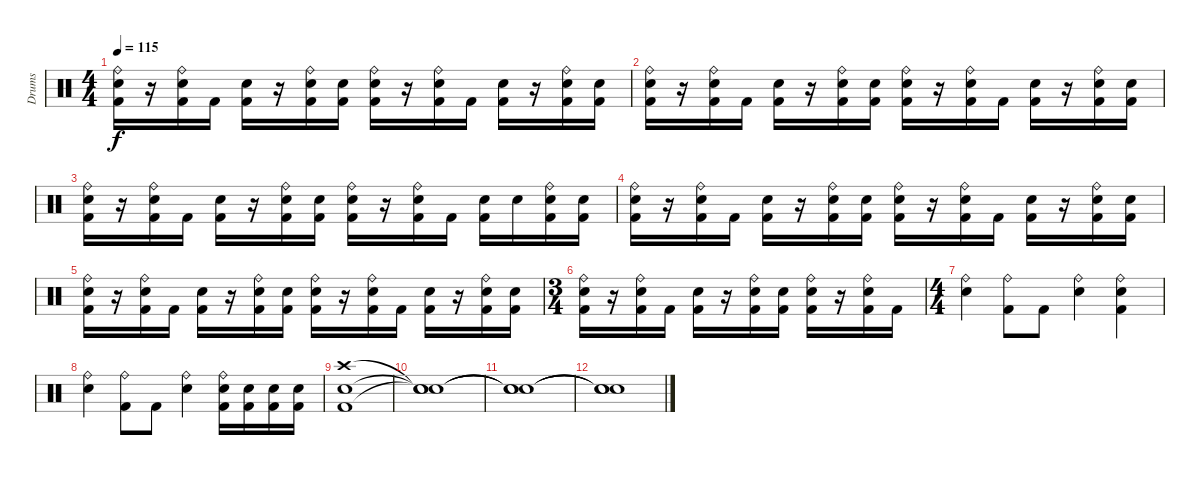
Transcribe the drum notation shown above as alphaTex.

\track ("Drums" "Drums") {instrument percussion}
\staff {score}
\articulation defaults
\ts (4 4)
\tempo 115
\clef neutral
\ks c
("Ride (bell)" "Snare (hit) 2" "Kick (hit) 2").16{dy f} r.16 ("Ride (bell)" "Snare (hit) 2" "Kick (hit) 2").16 "Kick (hit) 2".16 ("Electric Snare (hit)" "Kick (hit) 2").16 r.16 ("Ride (bell)" "Snare (hit) 2" "Kick (hit) 2").16 ("Snare (hit) 2" "Kick (hit) 2").16 ("Ride (bell)" "Snare (hit) 2" "Kick (hit) 2").16 r.16 ("Ride (bell)" "Snare (hit) 2" "Kick (hit) 2").16 "Kick (hit) 2".16 ("Electric Snare (hit)" "Kick (hit) 2").16 r.16 ("Ride (bell)" "Snare (hit) 2" "Kick (hit) 2").16 ("Snare (hit) 2" "Kick (hit) 2").16 |
("Ride (bell)" "Snare (hit) 2" "Kick (hit) 2").16 r.16 ("Ride (bell)" "Snare (hit) 2" "Kick (hit) 2").16 "Kick (hit) 2".16 ("Electric Snare (hit)" "Kick (hit) 2").16 r.16 ("Ride (bell)" "Snare (hit) 2" "Kick (hit) 2").16 ("Snare (hit) 2" "Kick (hit) 2").16 ("Ride (bell)" "Snare (hit) 2" "Kick (hit) 2").16 r.16 ("Ride (bell)" "Snare (hit) 2" "Kick (hit) 2").16 "Kick (hit) 2".16 ("Electric Snare (hit)" "Kick (hit) 2").16 r.16 ("Ride (bell)" "Snare (hit) 2" "Kick (hit) 2").16 ("Snare (hit) 2" "Kick (hit) 2").16 |
("Ride (bell)" "Snare (hit) 2" "Kick (hit) 2").16 r.16 ("Ride (bell)" "Snare (hit) 2" "Kick (hit) 2").16 "Kick (hit) 2".16 ("Electric Snare (hit)" "Kick (hit) 2").16 r.16 ("Ride (bell)" "Snare (hit) 2" "Kick (hit) 2").16 ("Snare (hit) 2" "Kick (hit) 2").16 ("Ride (bell)" "Snare (hit) 2" "Kick (hit) 2").16 r.16 ("Ride (bell)" "Snare (hit) 2" "Kick (hit) 2").16 "Kick (hit) 2".16 ("Electric Snare (hit)" "Kick (hit) 2").16 "Electric Snare (hit)".16 ("Ride (bell)" "Electric Snare (hit)" "Kick (hit) 2").16 ("Electric Snare (hit)" "Kick (hit) 2").16 |
("Ride (bell)" "Snare (hit) 2" "Kick (hit) 2").16 r.16 ("Ride (bell)" "Snare (hit) 2" "Kick (hit) 2").16 "Kick (hit) 2".16 ("Electric Snare (hit)" "Kick (hit) 2").16 r.16 ("Ride (bell)" "Snare (hit) 2" "Kick (hit) 2").16 ("Snare (hit) 2" "Kick (hit) 2").16 ("Ride (bell)" "Snare (hit) 2" "Kick (hit) 2").16 r.16 ("Ride (bell)" "Snare (hit) 2" "Kick (hit) 2").16 "Kick (hit) 2".16 ("Electric Snare (hit)" "Kick (hit) 2").16 r.16 ("Ride (bell)" "Snare (hit) 2" "Kick (hit) 2").16 ("Snare (hit) 2" "Kick (hit) 2").16 |
("Ride (bell)" "Snare (hit) 2" "Kick (hit) 2").16 r.16 ("Ride (bell)" "Snare (hit) 2" "Kick (hit) 2").16 "Kick (hit) 2".16 ("Electric Snare (hit)" "Kick (hit) 2").16 r.16 ("Ride (bell)" "Snare (hit) 2" "Kick (hit) 2").16 ("Snare (hit) 2" "Kick (hit) 2").16 ("Ride (bell)" "Snare (hit) 2" "Kick (hit) 2").16 r.16 ("Ride (bell)" "Snare (hit) 2" "Kick (hit) 2").16 "Kick (hit) 2".16 ("Electric Snare (hit)" "Kick (hit) 2").16 r.16 ("Ride (bell)" "Snare (hit) 2" "Kick (hit) 2").16 ("Snare (hit) 2" "Kick (hit) 2").16 |
\ts (3 4)
("Ride (bell)" "Snare (hit) 2" "Kick (hit) 2").16 r.16 ("Ride (bell)" "Snare (hit) 2" "Kick (hit) 2").16 "Kick (hit) 2".16 ("Electric Snare (hit)" "Kick (hit) 2").16 r.16 ("Ride (bell)" "Snare (hit) 2" "Kick (hit) 2").16 ("Snare (hit) 2" "Kick (hit) 2").16 ("Ride (bell)" "Snare (hit) 2" "Kick (hit) 2").16 r.16 ("Ride (bell)" "Snare (hit) 2" "Kick (hit) 2").16 "Kick (hit) 2".16 |
\ts (4 4)
("Ride (bell)" "Snare (hit) 2").4 ("Ride (bell)" "Kick (hit) 2").8 "Kick (hit) 2".8 ("Ride (bell)" "Electric Snare (hit)").4 ("Ride (bell)" "Kick (hit) 2" "Snare (hit) 2").4 |
("Ride (bell)" "Snare (hit) 2").4 ("Ride (bell)" "Kick (hit) 2").8 "Kick (hit) 2".8 ("Ride (bell)" "Electric Snare (hit)").4 ("Ride (bell)" "Kick (hit) 2" "Snare (hit) 2").16 ("Kick (hit) 2" "Snare (hit) 2").16 ("Kick (hit) 2" "Snare (hit) 2").16 ("Kick (hit) 2" "Snare (hit) 2").16 |
("Crash high (hit)" "Snare (hit) 2" "Kick (hit) 2").1 |
("Snare (hit)"{t} "Snare (hit)"{t} "Snare (hit)"{t}).1 |
("Snare (hit)"{t} "Snare (hit)"{t} "Snare (hit)"{t}).1 |
("Snare (hit)"{t} "Snare (hit)"{t} "Snare (hit)"{t}).1
